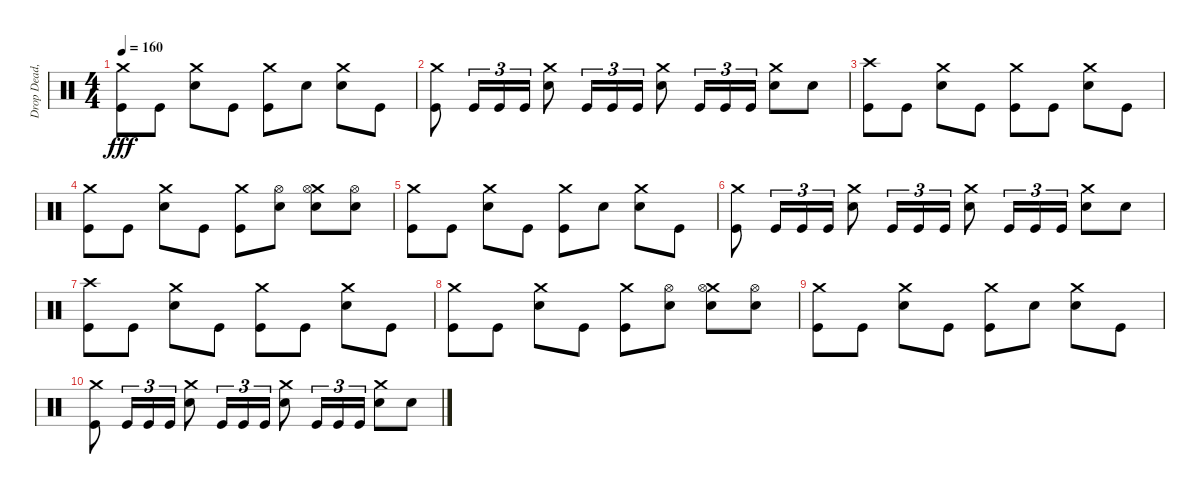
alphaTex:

\track ("Drop Dead, Johnny" "Drop Dead,") {instrument percussion}
\staff {score}
\articulation defaults
\ts (4 4)
\tempo 160
\clef neutral
\ks c
("Crash medium (hit)" "Kick (hit)").8{dy fff} "Kick (hit)".8 ("Crash medium (hit)" "Electric Snare (hit)").8 "Kick (hit)".8 ("Crash medium (hit)" "Kick (hit)").8 "Electric Snare (hit)".8 ("Crash medium (hit)" "Electric Snare (hit)").8 "Kick (hit)".8 |
("Crash medium (hit)" "Kick (hit)").8 "Kick (hit)".16{tu (3 2)} "Kick (hit)".16{tu (3 2)} "Kick (hit)".16{tu (3 2)} ("Crash medium (hit)" "Electric Snare (hit)").8 "Kick (hit)".16{tu (3 2)} "Kick (hit)".16{tu (3 2)} "Kick (hit)".16{tu (3 2)} ("Crash medium (hit)" "Electric Snare (hit)").8 "Kick (hit)".16{tu (3 2)} "Kick (hit)".16{tu (3 2)} "Kick (hit)".16{tu (3 2)} ("Crash medium (hit)" "Electric Snare (hit)").8 "Electric Snare (hit)".8 |
("Crash high (hit)" "Kick (hit)").8 "Kick (hit)".8 ("Crash medium (hit)" "Electric Snare (hit)").8 "Kick (hit)".8 ("Crash medium (hit)" "Kick (hit)").8 "Kick (hit)".8 ("Crash medium (hit)" "Electric Snare (hit)").8 "Kick (hit)".8 |
("Crash medium (hit)" "Kick (hit)").8 "Kick (hit)".8 ("Crash medium (hit)" "Electric Snare (hit)").8 "Kick (hit)".8 ("Crash medium (hit)" "Kick (hit)").8 ("Hi-Hat (open)" "Electric Snare (hit)").8 ("Crash medium (hit)" "Hi-Hat (open)" "Electric Snare (hit)").8 ("Hi-Hat (open)" "Electric Snare (hit)").8 |
("Crash medium (hit)" "Kick (hit)").8 "Kick (hit)".8 ("Crash medium (hit)" "Electric Snare (hit)").8 "Kick (hit)".8 ("Crash medium (hit)" "Kick (hit)").8 "Electric Snare (hit)".8 ("Crash medium (hit)" "Electric Snare (hit)").8 "Kick (hit)".8 |
("Crash medium (hit)" "Kick (hit)").8 "Kick (hit)".16{tu (3 2)} "Kick (hit)".16{tu (3 2)} "Kick (hit)".16{tu (3 2)} ("Crash medium (hit)" "Electric Snare (hit)").8 "Kick (hit)".16{tu (3 2)} "Kick (hit)".16{tu (3 2)} "Kick (hit)".16{tu (3 2)} ("Crash medium (hit)" "Electric Snare (hit)").8 "Kick (hit)".16{tu (3 2)} "Kick (hit)".16{tu (3 2)} "Kick (hit)".16{tu (3 2)} ("Crash medium (hit)" "Electric Snare (hit)").8 "Electric Snare (hit)".8 |
("Crash high (hit)" "Kick (hit)").8 "Kick (hit)".8 ("Crash medium (hit)" "Electric Snare (hit)").8 "Kick (hit)".8 ("Crash medium (hit)" "Kick (hit)").8 "Kick (hit)".8 ("Crash medium (hit)" "Electric Snare (hit)").8 "Kick (hit)".8 |
("Crash medium (hit)" "Kick (hit)").8 "Kick (hit)".8 ("Crash medium (hit)" "Electric Snare (hit)").8 "Kick (hit)".8 ("Crash medium (hit)" "Kick (hit)").8 ("Hi-Hat (open)" "Electric Snare (hit)").8 ("Crash medium (hit)" "Hi-Hat (open)" "Electric Snare (hit)").8 ("Hi-Hat (open)" "Electric Snare (hit)").8 |
("Crash medium (hit)" "Kick (hit)").8 "Kick (hit)".8 ("Crash medium (hit)" "Electric Snare (hit)").8 "Kick (hit)".8 ("Crash medium (hit)" "Kick (hit)").8 "Electric Snare (hit)".8 ("Crash medium (hit)" "Electric Snare (hit)").8 "Kick (hit)".8 |
("Crash medium (hit)" "Kick (hit)").8 "Kick (hit)".16{tu (3 2)} "Kick (hit)".16{tu (3 2)} "Kick (hit)".16{tu (3 2)} ("Crash medium (hit)" "Electric Snare (hit)").8 "Kick (hit)".16{tu (3 2)} "Kick (hit)".16{tu (3 2)} "Kick (hit)".16{tu (3 2)} ("Crash medium (hit)" "Electric Snare (hit)").8 "Kick (hit)".16{tu (3 2)} "Kick (hit)".16{tu (3 2)} "Kick (hit)".16{tu (3 2)} ("Crash medium (hit)" "Electric Snare (hit)").8 "Electric Snare (hit)".8
